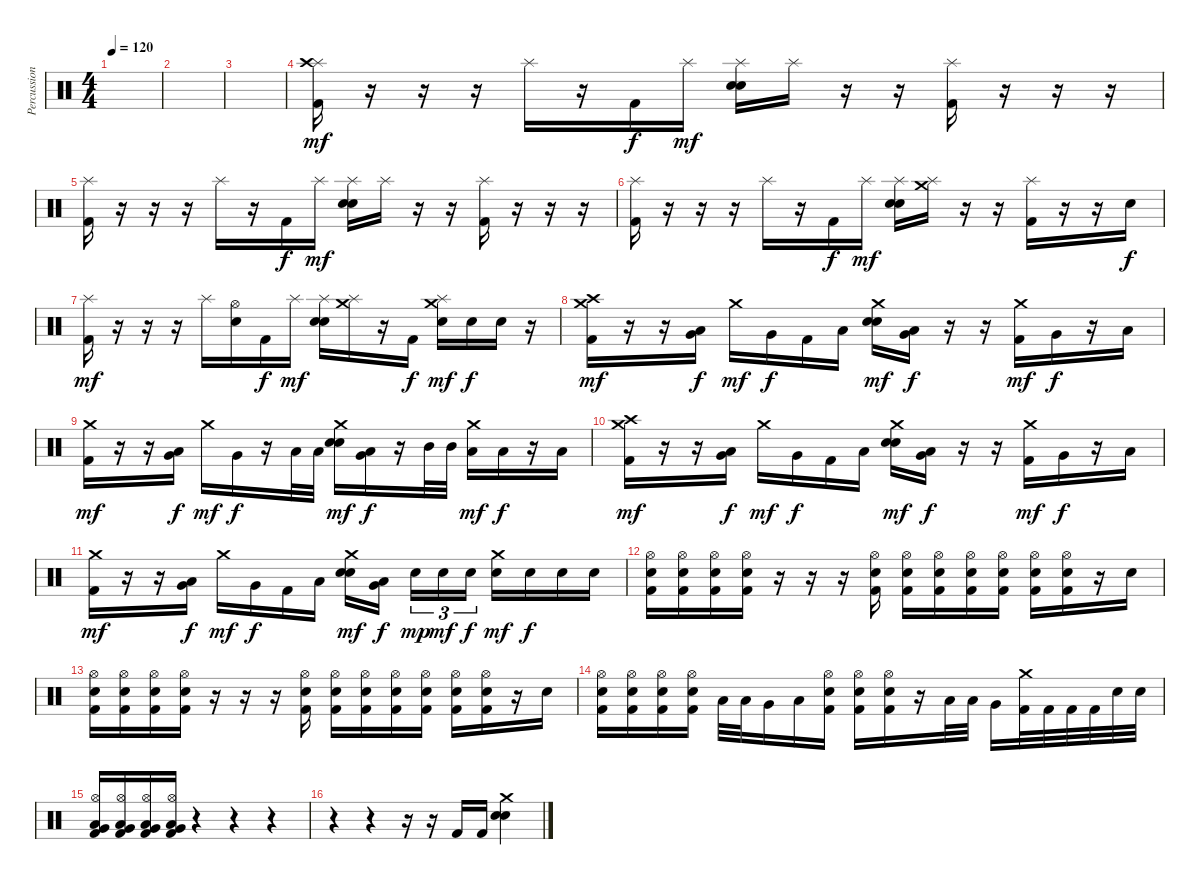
\track ("Percussion" "Percussion") {instrument percussion}
\staff {score}
\articulation defaults
\ts (4 4)
\tempo 120
\clef neutral
\ks c
|
|
|
("Splash (hit)" "Crash high (hit)" "Kick (hit) 2").16{dy mf} r.16 r.16 r.16 "Splash (hit)".16 r.16 "Kick (hit) 2".16{dy f} "Splash (hit)".16{dy mf} ("Splash (hit)" "Snare (hit) 2" "Electric Snare (hit)").16 "Splash (hit)".16 r.16 r.16 ("Splash (hit)" "Kick (hit) 2").16 r.16 r.16 r.16 |
("Splash (hit)" "Kick (hit) 2").16 r.16 r.16 r.16 "Splash (hit)".16 r.16 "Kick (hit) 2".16{dy f} "Splash (hit)".16{dy mf} ("Splash (hit)" "Snare (hit) 2" "Electric Snare (hit)").16 "Splash (hit)".16 r.16 r.16 ("Splash (hit)" "Kick (hit) 2").16 r.16 r.16 r.16 |
("Splash (hit)" "Kick (hit) 2").16 r.16 r.16 r.16 "Splash (hit)".16 r.16 "Kick (hit) 2".16{dy f} "Splash (hit)".16{dy mf} ("Splash (hit)" "Snare (hit) 2" "Electric Snare (hit)").16 ("Splash (hit)" "Crash medium (hit)").16 r.16 r.16 ("Splash (hit)" "Kick (hit) 2").16 r.16 r.16 "Electric Snare (hit)".16{dy f} |
("Splash (hit)" "Kick (hit) 2").16{dy mf} r.16 r.16 r.16 "Splash (hit)".16 ("Hi-Hat (open)" "Electric Snare (hit)").16 "Kick (hit) 2".16{dy f} "Splash (hit)".16{dy mf} ("Splash (hit)" "Snare (hit) 2" "Electric Snare (hit)").16 ("Splash (hit)" "Crash medium (hit)").16 r.16 "Kick (hit) 2".16{dy f} ("Splash (hit)" "Crash medium (hit)" "Electric Snare (hit)").16{dy mf} "Electric Snare (hit)".16{dy f} "Electric Snare (hit)".16 r.16 |
("Crash medium (hit)" "Crash high (hit)" "Kick (hit) 2").16{dy mf} r.16 r.16 ("Low Tom (hit)" "Very Low Tom (hit)").16{dy f} "Crash medium (hit)".16{dy mf} "Very Low Tom (hit)".16{dy f} "Kick (hit) 2".16 "Low Floor Tom (hit)".16 ("Crash medium (hit)" "Snare (hit) 2" "Electric Snare (hit)").16{dy mf} ("Low Tom (hit)" "Very Low Tom (hit)").16{dy f} r.16 r.16 ("Crash medium (hit)" "Kick (hit) 2").16{dy mf} "Very Low Tom (hit)".16{dy f} r.16 "Low Floor Tom (hit)".16 |
("Crash medium (hit)" "Kick (hit) 2").16{dy mf} r.16 r.16 ("Low Tom (hit)" "Very Low Tom (hit)").16{dy f} "Crash medium (hit)".16{dy mf} "Very Low Tom (hit)".16{dy f} r.16 "Low Floor Tom (hit)".32 "Low Floor Tom (hit)".32 ("Crash medium (hit)" "Snare (hit) 2" "Electric Snare (hit)").16{dy mf} ("Low Tom (hit)" "Very Low Tom (hit)").16{dy f} r.16 "Mid Tom (hit)".32 "Mid Tom (hit)".32 ("Crash medium (hit)" "Low Tom (hit)").16{dy mf} "Low Tom (hit)".16{dy f} r.16 "Low Floor Tom (hit)".16 |
("Crash medium (hit)" "Crash high (hit)" "Kick (hit) 2").16{dy mf} r.16 r.16 ("Low Tom (hit)" "Very Low Tom (hit)").16{dy f} "Crash medium (hit)".16{dy mf} "Very Low Tom (hit)".16{dy f} "Kick (hit) 2".16 "Low Floor Tom (hit)".16 ("Crash medium (hit)" "Snare (hit) 2" "Electric Snare (hit)").16{dy mf} ("Low Tom (hit)" "Very Low Tom (hit)").16{dy f} r.16 r.16 ("Crash medium (hit)" "Kick (hit) 2").16{dy mf} "Very Low Tom (hit)".16{dy f} r.16 "Low Floor Tom (hit)".16 |
("Crash medium (hit)" "Kick (hit) 2").16{dy mf} r.16 r.16 ("Low Tom (hit)" "Very Low Tom (hit)").16{dy f} "Crash medium (hit)".16{dy mf} "Very Low Tom (hit)".16{dy f} "Kick (hit) 2".16 "Low Floor Tom (hit)".16 ("Crash medium (hit)" "Snare (hit) 2" "Electric Snare (hit)").16{dy mf} ("Low Tom (hit)" "Very Low Tom (hit)").16{dy f} "Electric Snare (hit)".16{tu (3 2) dy mp} "Electric Snare (hit)".16{tu (3 2) dy mf} "Electric Snare (hit)".16{tu (3 2) dy f} ("Crash medium (hit)" "Electric Snare (hit)").16{dy mf} "Electric Snare (hit)".16{dy f} "Electric Snare (hit)".16 "Electric Snare (hit)".16 |
("Hi-Hat (open)" "Electric Snare (hit)" "Kick (hit) 2").16 ("Hi-Hat (open)" "Electric Snare (hit)" "Kick (hit) 2").16 ("Hi-Hat (open)" "Electric Snare (hit)" "Kick (hit) 2").16 ("Hi-Hat (open)" "Electric Snare (hit)" "Kick (hit) 2").16 r.16 r.16 r.16 ("Hi-Hat (open)" "Electric Snare (hit)" "Kick (hit) 2").16 ("Hi-Hat (open)" "Electric Snare (hit)" "Kick (hit) 2").16 ("Hi-Hat (open)" "Electric Snare (hit)" "Kick (hit) 2").16 ("Hi-Hat (open)" "Electric Snare (hit)" "Kick (hit) 2").16 ("Hi-Hat (open)" "Electric Snare (hit)" "Kick (hit) 2").16 ("Hi-Hat (open)" "Electric Snare (hit)" "Kick (hit) 2").16 ("Hi-Hat (open)" "Electric Snare (hit)" "Kick (hit) 2").16 r.16 "Electric Snare (hit)".16 |
("Hi-Hat (open)" "Electric Snare (hit)" "Kick (hit) 2").16 ("Hi-Hat (open)" "Electric Snare (hit)" "Kick (hit) 2").16 ("Hi-Hat (open)" "Electric Snare (hit)" "Kick (hit) 2").16 ("Hi-Hat (open)" "Electric Snare (hit)" "Kick (hit) 2").16 r.16 r.16 r.16 ("Hi-Hat (open)" "Electric Snare (hit)" "Kick (hit) 2").16 ("Hi-Hat (open)" "Electric Snare (hit)" "Kick (hit) 2").16 ("Hi-Hat (open)" "Electric Snare (hit)" "Kick (hit) 2").16 ("Hi-Hat (open)" "Electric Snare (hit)" "Kick (hit) 2").16 ("Hi-Hat (open)" "Electric Snare (hit)" "Kick (hit) 2").16 ("Hi-Hat (open)" "Electric Snare (hit)" "Kick (hit) 2").16 ("Hi-Hat (open)" "Electric Snare (hit)" "Kick (hit) 2").16 r.16 "Electric Snare (hit)".16 |
("Hi-Hat (open)" "Electric Snare (hit)" "Kick (hit) 2").16 ("Hi-Hat (open)" "Electric Snare (hit)" "Kick (hit) 2").16 ("Hi-Hat (open)" "Electric Snare (hit)" "Kick (hit) 2").16 ("Hi-Hat (open)" "Electric Snare (hit)" "Kick (hit) 2").16 "Low Tom (hit)".32 "Low Tom (hit)".32 "Very Low Tom (hit)".16 "Low Floor Tom (hit)".16 ("Hi-Hat (open)" "Electric Snare (hit)" "Kick (hit) 2").16 ("Hi-Hat (open)" "Electric Snare (hit)" "Kick (hit) 2").16 ("Hi-Hat (open)" "Electric Snare (hit)" "Kick (hit) 2").16 r.16 "Low Tom (hit)".32 "Low Tom (hit)".32 "Very Low Tom (hit)".16 ("Crash medium (hit)" "Kick (hit) 2").32 "Kick (hit) 2".32 "Kick (hit) 2".32 "Kick (hit) 2".32 "Electric Snare (hit)".32 "Electric Snare (hit)".32 |
("Hi-Hat (open)" "Low Tom (hit)" "Very Low Tom (hit)" "Kick (hit) 2").16 ("Hi-Hat (open)" "Low Tom (hit)" "Very Low Tom (hit)" "Kick (hit) 2").16 ("Hi-Hat (open)" "Low Tom (hit)" "Very Low Tom (hit)" "Kick (hit) 2").16 ("Hi-Hat (open)" "Low Tom (hit)" "Very Low Tom (hit)" "Kick (hit) 2").16 r.4 r.4 r.4 |
r.4 r.4 r.16 r.16 "Kick (hit) 2".16 "Kick (hit) 2".16 ("Crash medium (hit)" "Snare (hit) 2" "Electric Snare (hit)").4
